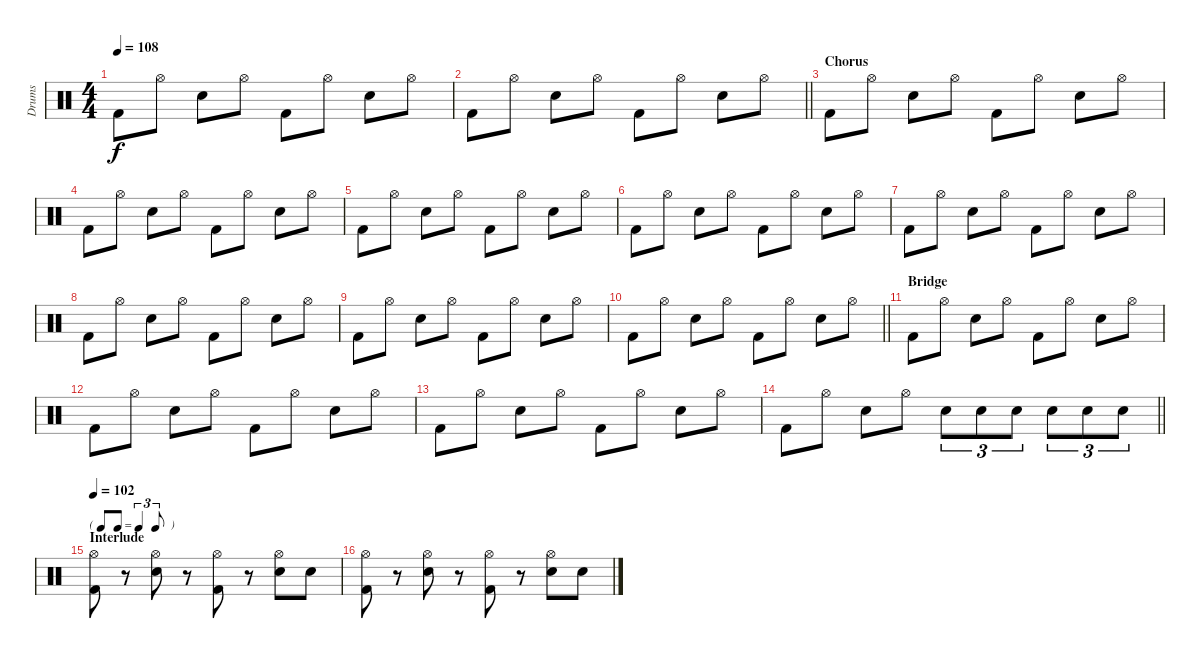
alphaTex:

\track ("Drums" "Drums") {instrument percussion}
\staff {score}
\articulation defaults
\ts (4 4)
\tempo 108
\clef neutral
\ks c "Kick (hit) 2".8{dy f} "Hi-Hat (open)".8 "Snare (hit) 2".8 "Hi-Hat (open)".8 "Kick (hit) 2".8 "Hi-Hat (open)".8 "Snare (hit) 2".8 "Hi-Hat (open)".8
|
\barLineRight lightlight "Kick (hit) 2".8 "Hi-Hat (open)".8 "Snare (hit) 2".8 "Hi-Hat (open)".8 "Kick (hit) 2".8 "Hi-Hat (open)".8 "Snare (hit) 2".8 "Hi-Hat (open)".8
|
\section ("" "Chorus")
"Kick (hit) 2".8 "Hi-Hat (open)".8 "Snare (hit) 2".8 "Hi-Hat (open)".8 "Kick (hit) 2".8 "Hi-Hat (open)".8 "Snare (hit) 2".8 "Hi-Hat (open)".8 |
"Kick (hit) 2".8 "Hi-Hat (open)".8 "Snare (hit) 2".8 "Hi-Hat (open)".8 "Kick (hit) 2".8 "Hi-Hat (open)".8 "Snare (hit) 2".8 "Hi-Hat (open)".8 |
"Kick (hit) 2".8 "Hi-Hat (open)".8 "Snare (hit) 2".8 "Hi-Hat (open)".8 "Kick (hit) 2".8 "Hi-Hat (open)".8 "Snare (hit) 2".8 "Hi-Hat (open)".8 |
"Kick (hit) 2".8 "Hi-Hat (open)".8 "Snare (hit) 2".8 "Hi-Hat (open)".8 "Kick (hit) 2".8 "Hi-Hat (open)".8 "Snare (hit) 2".8 "Hi-Hat (open)".8 |
"Kick (hit) 2".8 "Hi-Hat (open)".8 "Snare (hit) 2".8 "Hi-Hat (open)".8 "Kick (hit) 2".8 "Hi-Hat (open)".8 "Snare (hit) 2".8 "Hi-Hat (open)".8 |
"Kick (hit) 2".8 "Hi-Hat (open)".8 "Snare (hit) 2".8 "Hi-Hat (open)".8 "Kick (hit) 2".8 "Hi-Hat (open)".8 "Snare (hit) 2".8 "Hi-Hat (open)".8 |
"Kick (hit) 2".8 "Hi-Hat (open)".8 "Snare (hit) 2".8 "Hi-Hat (open)".8 "Kick (hit) 2".8 "Hi-Hat (open)".8 "Snare (hit) 2".8 "Hi-Hat (open)".8 |
\barLineRight lightlight "Kick (hit) 2".8 "Hi-Hat (open)".8 "Snare (hit) 2".8 "Hi-Hat (open)".8 "Kick (hit) 2".8 "Hi-Hat (open)".8 "Snare (hit) 2".8 "Hi-Hat (open)".8
|
\section ("" "Bridge")
"Kick (hit) 2".8 "Hi-Hat (open)".8 "Snare (hit) 2".8 "Hi-Hat (open)".8 "Kick (hit) 2".8 "Hi-Hat (open)".8 "Snare (hit) 2".8 "Hi-Hat (open)".8 |
"Kick (hit) 2".8 "Hi-Hat (open)".8 "Snare (hit) 2".8 "Hi-Hat (open)".8 "Kick (hit) 2".8 "Hi-Hat (open)".8 "Snare (hit) 2".8 "Hi-Hat (open)".8 |
"Kick (hit) 2".8 "Hi-Hat (open)".8 "Snare (hit) 2".8 "Hi-Hat (open)".8 "Kick (hit) 2".8 "Hi-Hat (open)".8 "Snare (hit) 2".8 "Hi-Hat (open)".8 |
\barLineRight lightlight "Kick (hit) 2".8 "Hi-Hat (open)".8 "Snare (hit) 2".8 "Hi-Hat (open)".8 "Snare (hit) 2".8{tu (3 2)} "Snare (hit) 2".8{tu (3 2)} "Snare (hit) 2".8{tu (3 2)} "Snare (hit) 2".8{tu (3 2)} "Snare (hit) 2".8{tu (3 2)} "Snare (hit) 2".8{tu (3 2)}
|
\tf triplet8th
\section ("" "Interlude")
\tempo 102
("Hi-Hat (open)" "Kick (hit) 2").8 r.8 ("Hi-Hat (open)" "Snare (hit) 2").8 r.8 ("Hi-Hat (open)" "Kick (hit) 2").8 r.8 ("Hi-Hat (open)" "Snare (hit) 2").8 "Snare (hit) 2".8 |
("Hi-Hat (open)" "Kick (hit) 2").8 r.8 ("Hi-Hat (open)" "Snare (hit) 2").8 r.8 ("Hi-Hat (open)" "Kick (hit) 2").8 r.8 ("Hi-Hat (open)" "Snare (hit) 2").8 "Snare (hit) 2".8
